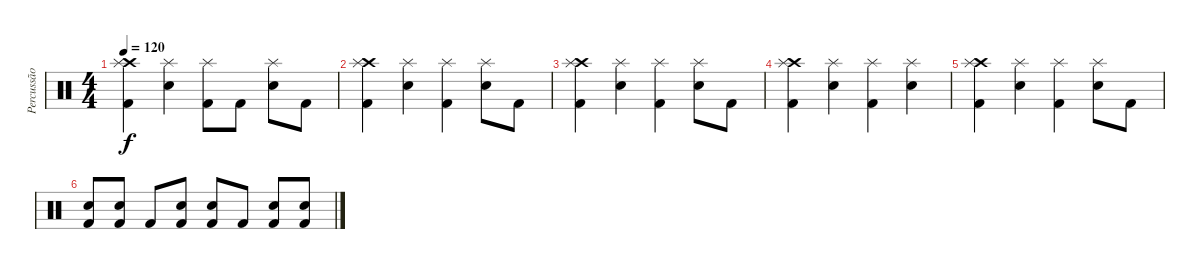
\track ("Percussão" "Percussão") {instrument percussion}
\staff {score}
\articulation defaults
\ts (4 4)
\tempo 120
\clef neutral
\ks c
("Crash high (hit)" "Splash (hit)" "Kick (hit) 2").4{dy f} ("Splash (hit)" "Snare (hit) 2").4 ("Splash (hit)" "Kick (hit) 2").8 "Kick (hit) 2".8 ("Splash (hit)" "Snare (hit) 2").8 "Kick (hit) 2".8 |
("Crash high (hit)" "Splash (hit)" "Kick (hit) 2").4 ("Splash (hit)" "Snare (hit) 2").4 ("Splash (hit)" "Kick (hit) 2").4 ("Splash (hit)" "Snare (hit) 2").8 "Kick (hit) 2".8 |
("Crash high (hit)" "Splash (hit)" "Kick (hit) 2").4 ("Splash (hit)" "Snare (hit) 2").4 ("Splash (hit)" "Kick (hit) 2").4 ("Splash (hit)" "Snare (hit) 2").8 "Kick (hit) 2".8 |
("Crash high (hit)" "Splash (hit)" "Kick (hit) 2").4 ("Splash (hit)" "Snare (hit) 2").4 ("Splash (hit)" "Kick (hit) 2").4 ("Splash (hit)" "Snare (hit) 2").4 |
("Crash high (hit)" "Splash (hit)" "Kick (hit) 2").4 ("Splash (hit)" "Snare (hit) 2").4 ("Splash (hit)" "Kick (hit) 2").4 ("Splash (hit)" "Snare (hit) 2").8 "Kick (hit) 2".8 |
("Snare (hit) 2" "Kick (hit) 2").8 ("Snare (hit) 2" "Kick (hit) 2").8 "Kick (hit) 2".8 ("Snare (hit) 2" "Kick (hit) 2").8 ("Snare (hit) 2" "Kick (hit) 2").8 "Kick (hit) 2".8 ("Snare (hit) 2" "Kick (hit) 2").8 ("Snare (hit) 2" "Kick (hit) 2").8
